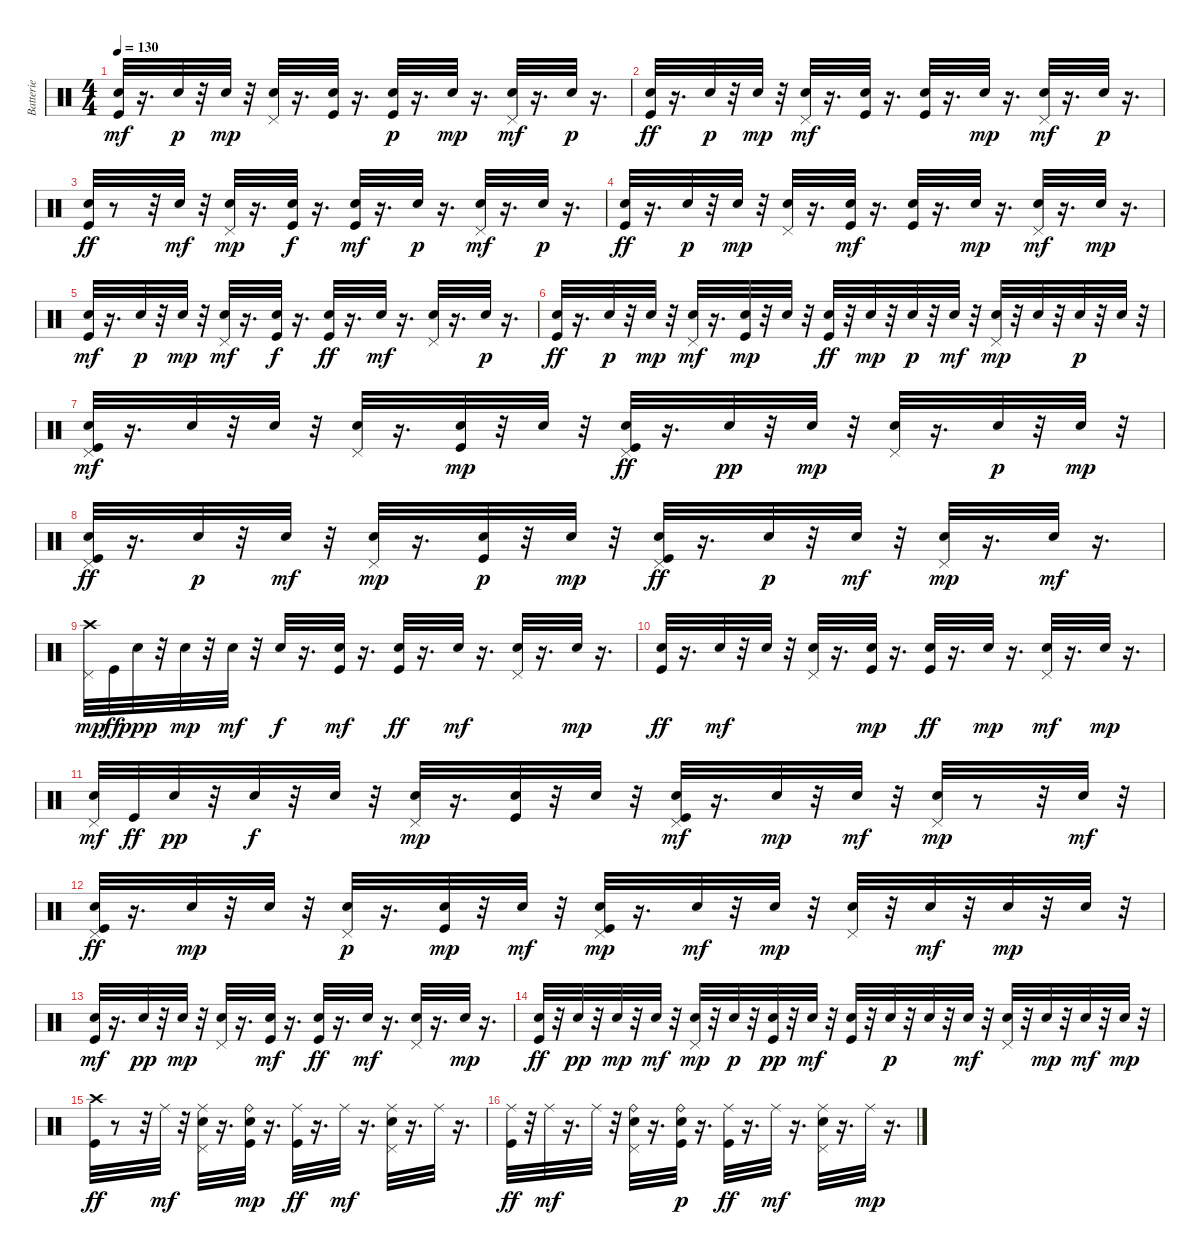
\track ("Batterie" "Batterie") {instrument percussion}
\staff {score}
\articulation defaults
\ts (4 4)
\tempo 130
\clef neutral
\ks c
("Kick (hit)" "Electric Snare (hit)").32{dy mf} r.16{d} "Electric Snare (hit)".32{dy p} r.32 "Electric Snare (hit)".32{dy mp} r.32 ("Pedal Hi-Hat (hit)" "Electric Snare (hit)").32 r.16{d} ("Electric Snare (hit)" "Kick (hit)").32 r.16{d} ("Kick (hit)" "Electric Snare (hit)").32{dy p} r.16{d} "Electric Snare (hit)".32{dy mp} r.16{d} ("Pedal Hi-Hat (hit)" "Electric Snare (hit)").32{dy mf} r.16{d} "Electric Snare (hit)".32{dy p} r.16{d} |
("Electric Snare (hit)" "Kick (hit)").32{dy ff} r.16{d} "Electric Snare (hit)".32{dy p} r.32 "Electric Snare (hit)".32{dy mp} r.32 ("Electric Snare (hit)" "Pedal Hi-Hat (hit)").32{dy mf} r.16{d} ("Electric Snare (hit)" "Kick (hit)").32 r.16{d} ("Kick (hit)" "Electric Snare (hit)").32 r.16{d} "Electric Snare (hit)".32{dy mp} r.16{d} ("Electric Snare (hit)" "Pedal Hi-Hat (hit)").32{dy mf} r.16{d} "Electric Snare (hit)".32{dy p} r.16{d} |
("Electric Snare (hit)" "Kick (hit)").32{dy ff} r.8 r.32 "Electric Snare (hit)".32{dy mf} r.32 ("Pedal Hi-Hat (hit)" "Electric Snare (hit)").32{dy mp} r.16{d} ("Kick (hit)" "Electric Snare (hit)").32{dy f} r.16{d} ("Kick (hit)" "Electric Snare (hit)").32{dy mf} r.16{d} "Electric Snare (hit)".32{dy p} r.16{d} ("Pedal Hi-Hat (hit)" "Electric Snare (hit)").32{dy mf} r.16{d} "Electric Snare (hit)".32{dy p} r.16{d} |
("Kick (hit)" "Electric Snare (hit)").32{dy ff} r.16{d} "Electric Snare (hit)".32{dy p} r.32 "Electric Snare (hit)".32{dy mp} r.32 ("Pedal Hi-Hat (hit)" "Electric Snare (hit)").32 r.16{d} ("Kick (hit)" "Electric Snare (hit)").32{dy mf} r.16{d} ("Kick (hit)" "Electric Snare (hit)").32 r.16{d} "Electric Snare (hit)".32{dy mp} r.16{d} ("Pedal Hi-Hat (hit)" "Electric Snare (hit)").32{dy mf} r.16{d} "Electric Snare (hit)".32{dy mp} r.16{d} |
("Kick (hit)" "Electric Snare (hit)").32{dy mf} r.16{d} "Electric Snare (hit)".32{dy p} r.32 "Electric Snare (hit)".32{dy mp} r.32 ("Pedal Hi-Hat (hit)" "Electric Snare (hit)").32{dy mf} r.16{d} ("Kick (hit)" "Electric Snare (hit)").32{dy f} r.16{d} ("Electric Snare (hit)" "Kick (hit)").32{dy ff} r.16{d} "Electric Snare (hit)".32{dy mf} r.16{d} ("Pedal Hi-Hat (hit)" "Electric Snare (hit)").32 r.16{d} "Electric Snare (hit)".32{dy p} r.16{d} |
("Kick (hit)" "Electric Snare (hit)").32{dy ff} r.16{d} "Electric Snare (hit)".32{dy p} r.32 "Electric Snare (hit)".32{dy mp} r.32 ("Electric Snare (hit)" "Pedal Hi-Hat (hit)").32{dy mf} r.16{d} ("Kick (hit)" "Electric Snare (hit)").32{dy mp} r.32 "Electric Snare (hit)".32 r.32 ("Electric Snare (hit)" "Kick (hit)").32{dy ff} r.32 "Electric Snare (hit)".32{dy mp} r.32 "Electric Snare (hit)".32{dy p} r.32 "Electric Snare (hit)".32{dy mf} r.32 ("Electric Snare (hit)" "Pedal Hi-Hat (hit)").32{dy mp} r.32 "Electric Snare (hit)".32 r.32 "Electric Snare (hit)".32{dy p} r.32 "Electric Snare (hit)".32 r.32 |
("Kick (hit)" "Pedal Hi-Hat (hit)" "Electric Snare (hit)").32{dy mf} r.16{d} "Electric Snare (hit)".32 r.32 "Electric Snare (hit)".32 r.32 ("Pedal Hi-Hat (hit)" "Electric Snare (hit)").32 r.16{d} ("Kick (hit)" "Electric Snare (hit)").32{dy mp} r.32 "Electric Snare (hit)".32 r.32 ("Pedal Hi-Hat (hit)" "Kick (hit)" "Electric Snare (hit)").32{dy ff} r.16{d} "Electric Snare (hit)".32{dy pp} r.32 "Electric Snare (hit)".32{dy mp} r.32 ("Pedal Hi-Hat (hit)" "Electric Snare (hit)").32 r.16{d} "Electric Snare (hit)".32{dy p} r.32 "Electric Snare (hit)".32{dy mp} r.32 |
("Pedal Hi-Hat (hit)" "Electric Snare (hit)" "Kick (hit)").32{dy ff} r.16{d} "Electric Snare (hit)".32{dy p} r.32 "Electric Snare (hit)".32{dy mf} r.32 ("Electric Snare (hit)" "Pedal Hi-Hat (hit)").32{dy mp} r.16{d} ("Electric Snare (hit)" "Kick (hit)").32{dy p} r.32 "Electric Snare (hit)".32{dy mp} r.32 ("Pedal Hi-Hat (hit)" "Electric Snare (hit)" "Kick (hit)").32{dy ff} r.16{d} "Electric Snare (hit)".32{dy p} r.32 "Electric Snare (hit)".32{dy mf} r.32 ("Pedal Hi-Hat (hit)" "Electric Snare (hit)").32{dy mp} r.16{d} "Electric Snare (hit)".32{dy mf} r.16{d} |
("Pedal Hi-Hat (hit)" "Crash high (hit)").32{dy mp} "Kick (hit)".32{dy ff} "Electric Snare (hit)".32{dy ppp} r.32 "Electric Snare (hit)".32{dy mp} r.32 "Electric Snare (hit)".32{dy mf} r.32 "Electric Snare (hit)".32{dy f} r.16{d} ("Kick (hit)" "Electric Snare (hit)").32{dy mf} r.16{d} ("Kick (hit)" "Electric Snare (hit)").32{dy ff} r.16{d} "Electric Snare (hit)".32{dy mf} r.16{d} ("Pedal Hi-Hat (hit)" "Electric Snare (hit)").32 r.16{d} "Electric Snare (hit)".32{dy mp} r.16{d} |
("Electric Snare (hit)" "Kick (hit)").32{dy ff} r.16{d} "Electric Snare (hit)".32{dy mf} r.32 "Electric Snare (hit)".32 r.32 ("Pedal Hi-Hat (hit)" "Electric Snare (hit)").32 r.16{d} ("Kick (hit)" "Electric Snare (hit)").32{dy mp} r.16{d} ("Kick (hit)" "Electric Snare (hit)").32{dy ff} r.16{d} "Electric Snare (hit)".32{dy mp} r.16{d} ("Pedal Hi-Hat (hit)" "Electric Snare (hit)").32{dy mf} r.16{d} "Electric Snare (hit)".32{dy mp} r.16{d} |
("Pedal Hi-Hat (hit)" "Electric Snare (hit)").32{dy mf} "Kick (hit)".32{dy ff} "Electric Snare (hit)".32{dy pp} r.32 "Electric Snare (hit)".32{dy f} r.32 "Electric Snare (hit)".32 r.32 ("Pedal Hi-Hat (hit)" "Electric Snare (hit)").32{dy mp} r.16{d} ("Electric Snare (hit)" "Kick (hit)").32 r.32 "Electric Snare (hit)".32 r.32 ("Pedal Hi-Hat (hit)" "Kick (hit)" "Electric Snare (hit)").32{dy mf} r.16{d} "Electric Snare (hit)".32{dy mp} r.32 "Electric Snare (hit)".32{dy mf} r.32 ("Pedal Hi-Hat (hit)" "Electric Snare (hit)").32{dy mp} r.8 r.32 "Electric Snare (hit)".32{dy mf} r.32 |
("Pedal Hi-Hat (hit)" "Electric Snare (hit)" "Kick (hit)").32{dy ff} r.16{d} "Electric Snare (hit)".32{dy mp} r.32 "Electric Snare (hit)".32 r.32 ("Electric Snare (hit)" "Pedal Hi-Hat (hit)").32{dy p} r.16{d} ("Electric Snare (hit)" "Kick (hit)").32{dy mp} r.32 "Electric Snare (hit)".32{dy mf} r.32 ("Kick (hit)" "Pedal Hi-Hat (hit)" "Electric Snare (hit)").32{dy mp} r.16{d} "Electric Snare (hit)".32{dy mf} r.32 "Electric Snare (hit)".32{dy mp} r.32 ("Pedal Hi-Hat (hit)" "Electric Snare (hit)").32 r.32 "Electric Snare (hit)".32{dy mf} r.32 "Electric Snare (hit)".32{dy mp} r.32 "Electric Snare (hit)".32 r.32 |
("Kick (hit)" "Electric Snare (hit)").32{dy mf} r.16{d} "Electric Snare (hit)".32{dy pp} r.32 "Electric Snare (hit)".32{dy mp} r.32 ("Pedal Hi-Hat (hit)" "Electric Snare (hit)").32 r.16{d} ("Kick (hit)" "Electric Snare (hit)").32{dy mf} r.16{d} ("Kick (hit)" "Electric Snare (hit)").32{dy ff} r.16{d} "Electric Snare (hit)".32{dy mf} r.16{d} ("Pedal Hi-Hat (hit)" "Electric Snare (hit)").32 r.16{d} "Electric Snare (hit)".32{dy mp} r.16{d} |
("Electric Snare (hit)" "Kick (hit)").32{dy ff} r.32 "Electric Snare (hit)".32{dy pp} r.32 "Electric Snare (hit)".32{dy mp} r.32 "Electric Snare (hit)".32{dy mf} r.32 ("Electric Snare (hit)" "Pedal Hi-Hat (hit)").32{dy mp} r.32 "Electric Snare (hit)".32{dy p} r.32 ("Kick (hit)" "Electric Snare (hit)").32{dy pp} r.32 "Electric Snare (hit)".32{dy mf} r.32 ("Kick (hit)" "Electric Snare (hit)").32 r.32 "Electric Snare (hit)".32{dy p} r.32 "Electric Snare (hit)".32 r.32 "Electric Snare (hit)".32{dy mf} r.32 ("Pedal Hi-Hat (hit)" "Electric Snare (hit)").32 r.32 "Electric Snare (hit)".32{dy mp} r.32 "Electric Snare (hit)".32{dy mf} r.32 "Electric Snare (hit)".32{dy mp} r.32 |
("Crash high (hit)" "Kick (hit)").32{dy ff} r.8 r.32 "Ride (middle)".32{dy mf} r.32 ("Electric Snare (hit)" "Pedal Hi-Hat (hit)" "Ride (middle)").32 r.16{d} ("Electric Snare (hit)" "Ride (bell)" "Kick (hit)").32{dy mp} r.16{d} ("Ride (middle)" "Kick (hit)").32{dy ff} r.16{d} "Ride (middle)".32{dy mf} r.16{d} ("Pedal Hi-Hat (hit)" "Electric Snare (hit)" "Ride (middle)").32 r.16{d} "Ride (middle)".32 r.16{d} |
("Ride (middle)" "Kick (hit)").32{dy ff} r.32 "Ride (middle)".32{dy mf} r.16{d} "Ride (middle)".32 r.32 ("Electric Snare (hit)" "Pedal Hi-Hat (hit)" "Ride (bell)").32 r.16{d} ("Electric Snare (hit)" "Ride (bell)" "Kick (hit)").32{dy p} r.16{d} ("Ride (middle)" "Kick (hit)").32{dy ff} r.16{d} "Ride (middle)".32{dy mf} r.16{d} ("Electric Snare (hit)" "Pedal Hi-Hat (hit)" "Ride (middle)").32 r.16{d} "Ride (middle)".32{dy mp} r.16{d}
